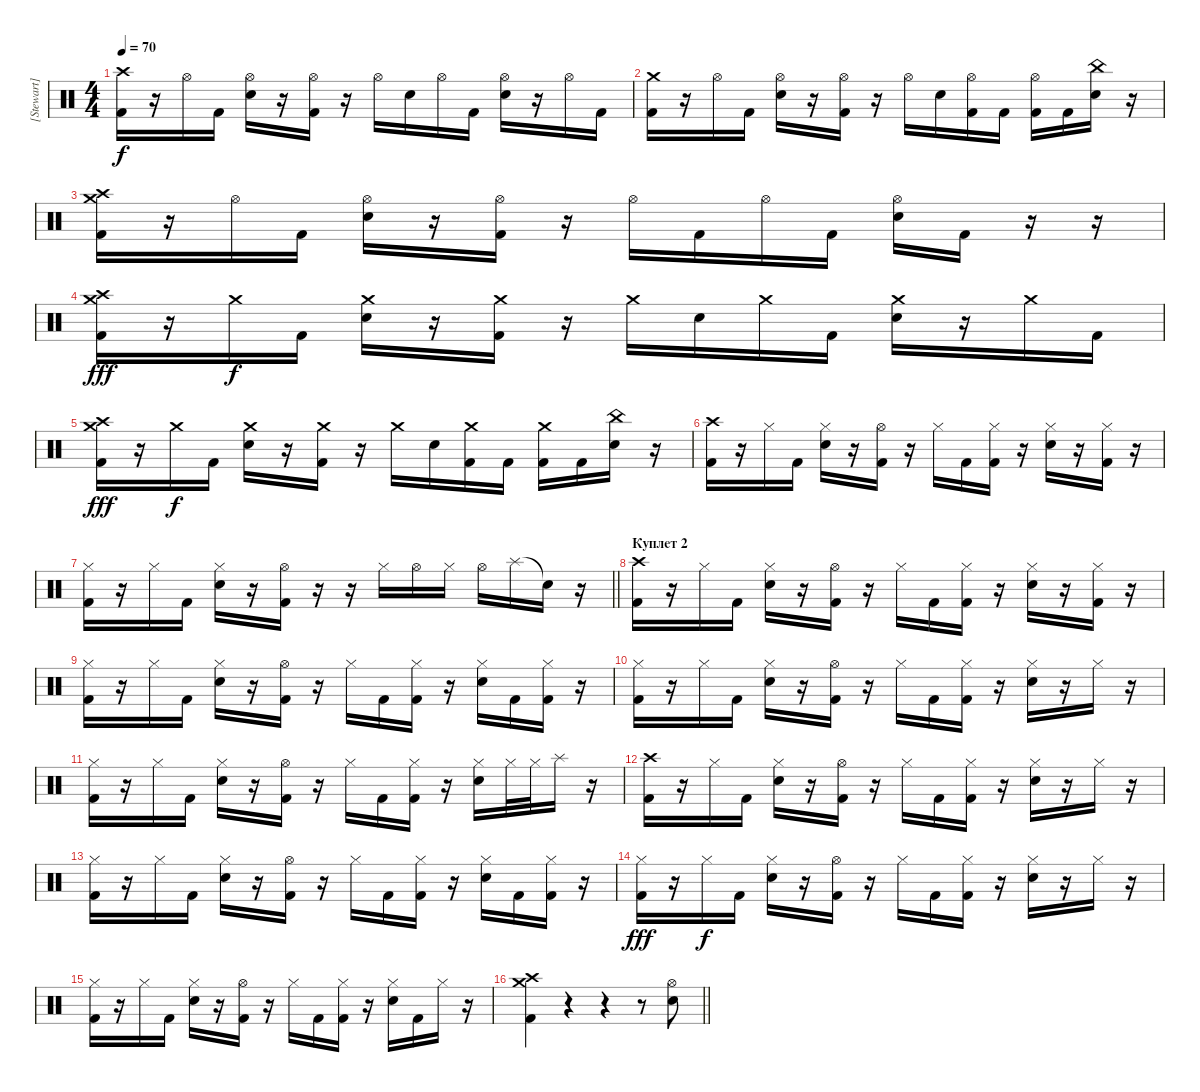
\track ("[Stewart]" "[Stewart]") {instrument percussion}
\staff {score}
\articulation defaults
\ts (4 4)
\tempo 70
\clef neutral
\ks c
("Crash high (hit)" "Kick (hit) 2").16{dy f} r.16 "Hi-Hat (open)".16 "Kick (hit) 2".16 ("Hi-Hat (open)" "Electric Snare (hit)").16 r.16 ("Hi-Hat (open)" "Kick (hit) 2").16 r.16 "Hi-Hat (open)".16 "Electric Snare (hit)".16 "Hi-Hat (open)".16 "Kick (hit) 2".16 ("Hi-Hat (open)" "Electric Snare (hit)").16 r.16 "Hi-Hat (open)".16 "Kick (hit) 2".16 |
("Crash medium (hit)" "Kick (hit) 2").16 r.16 "Hi-Hat (open)".16 "Kick (hit) 2".16 ("Hi-Hat (open)" "Electric Snare (hit)").16 r.16 ("Hi-Hat (open)" "Kick (hit) 2").16 r.16 "Hi-Hat (open)".16 "Electric Snare (hit)".16 ("Hi-Hat (open)" "Kick (hit) 2").16 "Kick (hit) 2".16 ("Hi-Hat (open)" "Kick (hit) 2").16 "Kick (hit) 2".16 ("China (hit)" "Electric Snare (hit)").16 r.16 |
("Crash medium (hit)" "Crash high (hit)" "Kick (hit) 2").16 r.16 "Hi-Hat (open)".16 "Kick (hit) 2".16 ("Hi-Hat (open)" "Electric Snare (hit)").16 r.16 ("Hi-Hat (open)" "Kick (hit) 2").16 r.16 "Hi-Hat (open)".16 "Kick (hit) 2".16 "Hi-Hat (open)".16 "Kick (hit) 2".16 ("Hi-Hat (open)" "Electric Snare (hit)").16 "Kick (hit) 2".16 r.16 r.16 |
("Crash medium (hit)" "Crash high (hit)" "Kick (hit) 2").16{dy fff} r.16 "Crash medium (hit)".16{dy f} "Kick (hit) 2".16 ("Crash medium (hit)" "Electric Snare (hit)").16 r.16 ("Crash medium (hit)" "Kick (hit) 2").16 r.16 "Crash medium (hit)".16 "Electric Snare (hit)".16 "Crash medium (hit)".16 "Kick (hit) 2".16 ("Crash medium (hit)" "Electric Snare (hit)").16 r.16 "Crash medium (hit)".16 "Kick (hit) 2".16 |
("Crash medium (hit)" "Crash high (hit)" "Kick (hit) 2").16{dy fff} r.16 "Crash medium (hit)".16{dy f} "Kick (hit) 2".16 ("Crash medium (hit)" "Electric Snare (hit)").16 r.16 ("Crash medium (hit)" "Kick (hit) 2").16 r.16 "Crash medium (hit)".16 "Electric Snare (hit)".16 ("Crash medium (hit)" "Kick (hit) 2").16 "Kick (hit) 2".16 ("Crash medium (hit)" "Kick (hit) 2").16 "Kick (hit) 2".16 ("China (hit)" "Electric Snare (hit)").16 r.16 |
("Crash high (hit)" "Kick (hit) 2").16 r.16 "Hi-Hat (closed)".16 "Kick (hit) 2".16 ("Hi-Hat (closed)" "Electric Snare (hit)").16 r.16 ("Hi-Hat (open)" "Kick (hit) 2").16 r.16 "Hi-Hat (closed)".16 "Kick (hit) 2".16 ("Hi-Hat (closed)" "Kick (hit) 2").16 r.16 ("Hi-Hat (closed)" "Electric Snare (hit)").16 r.16 ("Hi-Hat (closed)" "Kick (hit) 2").16 r.16 |
\barLineRight lightlight
("Hi-Hat (closed)" "Kick (hit) 2").16 r.16 "Hi-Hat (closed)".16 "Kick (hit) 2".16 ("Hi-Hat (closed)" "Electric Snare (hit)").16 r.16 ("Hi-Hat (open)" "Kick (hit) 2").16 r.16 r.16 "Hi-Hat (closed)".16 "Hi-Hat (open)".16 "Hi-Hat (closed)".16 "Hi-Hat (open)".16 "Splash (hit)".16 "Snare (hit)"{t}.16 r.16 |
\section ("" "Куплет 2")
("Crash high (hit)" "Kick (hit) 2").16 r.16 "Hi-Hat (closed)".16 "Kick (hit) 2".16 ("Hi-Hat (closed)" "Electric Snare (hit)").16 r.16 ("Hi-Hat (open)" "Kick (hit) 2").16 r.16 "Hi-Hat (closed)".16 "Kick (hit) 2".16 ("Hi-Hat (closed)" "Kick (hit) 2").16 r.16 ("Hi-Hat (closed)" "Electric Snare (hit)").16 r.16 ("Hi-Hat (closed)" "Kick (hit) 2").16 r.16 |
("Hi-Hat (closed)" "Kick (hit) 2").16 r.16 "Hi-Hat (closed)".16 "Kick (hit) 2".16 ("Hi-Hat (closed)" "Electric Snare (hit)").16 r.16 ("Hi-Hat (open)" "Kick (hit) 2").16 r.16 "Hi-Hat (closed)".16 "Kick (hit) 2".16 ("Hi-Hat (closed)" "Kick (hit) 2").16 r.16 ("Hi-Hat (closed)" "Electric Snare (hit)").16 "Kick (hit) 2".16 ("Hi-Hat (closed)" "Kick (hit) 2").16 r.16 |
("Hi-Hat (closed)" "Kick (hit) 2").16 r.16 "Hi-Hat (closed)".16 "Kick (hit) 2".16 ("Hi-Hat (closed)" "Electric Snare (hit)").16 r.16 ("Hi-Hat (open)" "Kick (hit) 2").16 r.16 "Hi-Hat (closed)".16 "Kick (hit) 2".16 ("Hi-Hat (closed)" "Kick (hit) 2").16 r.16 ("Hi-Hat (closed)" "Electric Snare (hit)").16 r.16 "Hi-Hat (closed)".16 r.16 |
("Hi-Hat (closed)" "Kick (hit) 2").16 r.16 "Hi-Hat (closed)".16 "Kick (hit) 2".16 ("Hi-Hat (closed)" "Electric Snare (hit)").16 r.16 ("Hi-Hat (open)" "Kick (hit) 2").16 r.16 "Hi-Hat (closed)".16 "Kick (hit) 2".16 ("Hi-Hat (closed)" "Kick (hit) 2").16 r.16 ("Hi-Hat (closed)" "Electric Snare (hit)").16 "Hi-Hat (closed)".32 "Hi-Hat (closed)".32 "Splash (hit)".16 r.16 |
("Crash high (hit)" "Kick (hit) 2").16 r.16 "Hi-Hat (closed)".16 "Kick (hit) 2".16 ("Hi-Hat (closed)" "Electric Snare (hit)").16 r.16 ("Hi-Hat (open)" "Kick (hit) 2").16 r.16 "Hi-Hat (closed)".16 "Kick (hit) 2".16 ("Hi-Hat (closed)" "Kick (hit) 2").16 r.16 ("Hi-Hat (closed)" "Electric Snare (hit)").16 r.16 "Hi-Hat (closed)".16 r.16 |
("Hi-Hat (closed)" "Kick (hit) 2").16 r.16 "Hi-Hat (closed)".16 "Kick (hit) 2".16 ("Hi-Hat (closed)" "Electric Snare (hit)").16 r.16 ("Hi-Hat (open)" "Kick (hit) 2").16 r.16 "Hi-Hat (closed)".16 "Kick (hit) 2".16 ("Hi-Hat (closed)" "Kick (hit) 2").16 r.16 ("Hi-Hat (closed)" "Electric Snare (hit)").16 "Kick (hit) 2".16 ("Hi-Hat (closed)" "Kick (hit) 2").16 r.16 |
("Hi-Hat (closed)" "Kick (hit) 2").16{dy fff} r.16 "Hi-Hat (closed)".16{dy f} "Kick (hit) 2".16 ("Hi-Hat (closed)" "Electric Snare (hit)").16 r.16 ("Hi-Hat (open)" "Kick (hit) 2").16 r.16 "Hi-Hat (closed)".16 "Kick (hit) 2".16 ("Hi-Hat (closed)" "Kick (hit) 2").16 r.16 ("Hi-Hat (closed)" "Electric Snare (hit)").16 r.16 "Hi-Hat (closed)".16 r.16 |
("Hi-Hat (closed)" "Kick (hit) 2").16 r.16 "Hi-Hat (closed)".16 "Kick (hit) 2".16 ("Hi-Hat (closed)" "Electric Snare (hit)").16 r.16 ("Hi-Hat (open)" "Kick (hit) 2").16 r.16 "Hi-Hat (closed)".16 "Kick (hit) 2".16 ("Hi-Hat (closed)" "Kick (hit) 2").16 r.16 ("Hi-Hat (closed)" "Electric Snare (hit)").16 "Kick (hit) 2".16 "Hi-Hat (closed)".16 r.16 |
\barLineRight lightlight
("Crash medium (hit)" "Crash high (hit)" "Kick (hit) 2").4 r.4 r.4 r.8 ("Hi-Hat (open)" "Electric Snare (hit)").8
